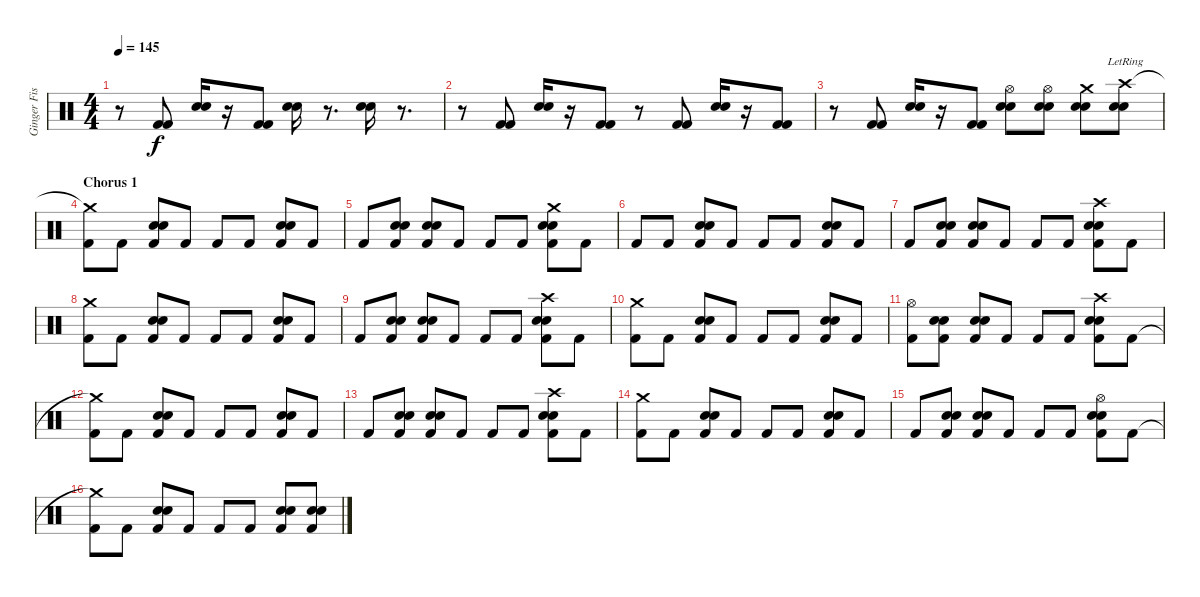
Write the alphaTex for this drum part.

\track ("Ginger Fish [Drums]" "Ginger Fis") {instrument percussion}
\staff {score}
\articulation defaults
\ts (4 4)
\tempo 145
\clef neutral
\ks c
r.8{dy f} ("Kick (hit) 2" "Kick (hit) 2").8 ("Snare (hit) 2" "Snare (hit) 2").16 r.16 ("Kick (hit) 2" "Kick (hit) 2").8 ("Snare (hit) 2" "Snare (hit) 2").16 r.8{d} ("Snare (hit) 2" "Snare (hit) 2").16 r.8{d} |
r.8 ("Kick (hit) 2" "Kick (hit) 2").8 ("Snare (hit) 2" "Snare (hit) 2").16 r.16 ("Kick (hit) 2" "Kick (hit) 2").8 r.8 ("Kick (hit) 2" "Kick (hit) 2").8 ("Snare (hit) 2" "Snare (hit) 2").16 r.16 ("Kick (hit) 2" "Kick (hit) 2").8 |
r.8 ("Kick (hit) 2" "Kick (hit) 2").8 ("Snare (hit) 2" "Snare (hit) 2").16 r.16 ("Kick (hit) 2" "Kick (hit) 2").8 ("Hi-Hat (open)" "Snare (hit) 2" "Snare (hit) 2").8 ("Hi-Hat (open)" "Snare (hit) 2" "Snare (hit) 2").8 ("Crash medium (hit)" "Snare (hit) 2" "Snare (hit) 2").8 ("Crash high (hit)"{lr} "Snare (hit) 2" "Snare (hit) 2").8 |
\section ("" "Chorus 1")
("Crash medium (hit)"{t} "Kick (hit) 2").8 "Kick (hit) 2".8 ("Snare (hit) 2" "Snare (hit) 2" "Kick (hit) 2").8 "Kick (hit) 2".8 "Kick (hit) 2".8 "Kick (hit) 2".8 ("Snare (hit) 2" "Snare (hit) 2" "Kick (hit) 2").8 "Kick (hit) 2".8 |
"Kick (hit) 2".8 ("Snare (hit) 2" "Snare (hit) 2" "Kick (hit) 2").8 ("Snare (hit) 2" "Snare (hit) 2" "Kick (hit) 2").8 "Kick (hit) 2".8 "Kick (hit) 2".8 "Kick (hit) 2".8 ("Crash medium (hit)" "Snare (hit) 2" "Snare (hit) 2" "Kick (hit) 2").8 "Kick (hit) 2".8 |
"Kick (hit) 2".8 "Kick (hit) 2".8 ("Snare (hit) 2" "Snare (hit) 2" "Kick (hit) 2").8 "Kick (hit) 2".8 "Kick (hit) 2".8 "Kick (hit) 2".8 ("Snare (hit) 2" "Snare (hit) 2" "Kick (hit) 2").8 "Kick (hit) 2".8 |
"Kick (hit) 2".8 ("Snare (hit) 2" "Snare (hit) 2" "Kick (hit) 2").8 ("Snare (hit) 2" "Snare (hit) 2" "Kick (hit) 2").8 "Kick (hit) 2".8 "Kick (hit) 2".8 "Kick (hit) 2".8 ("Crash high (hit)" "Snare (hit) 2" "Snare (hit) 2" "Kick (hit) 2").8 "Kick (hit) 2".8 |
("Crash medium (hit)" "Kick (hit) 2").8 "Kick (hit) 2".8 ("Snare (hit) 2" "Snare (hit) 2" "Kick (hit) 2").8 "Kick (hit) 2".8 "Kick (hit) 2".8 "Kick (hit) 2".8 ("Snare (hit) 2" "Snare (hit) 2" "Kick (hit) 2").8 "Kick (hit) 2".8 |
"Kick (hit) 2".8 ("Snare (hit) 2" "Snare (hit) 2" "Kick (hit) 2").8 ("Snare (hit) 2" "Snare (hit) 2" "Kick (hit) 2").8 "Kick (hit) 2".8 "Kick (hit) 2".8 "Kick (hit) 2".8 ("Crash high (hit)" "Snare (hit) 2" "Snare (hit) 2" "Kick (hit) 2").8 "Kick (hit) 2".8 |
("Crash medium (hit)" "Kick (hit) 2").8 "Kick (hit) 2".8 ("Snare (hit) 2" "Snare (hit) 2" "Kick (hit) 2").8 "Kick (hit) 2".8 "Kick (hit) 2".8 "Kick (hit) 2".8 ("Snare (hit) 2" "Snare (hit) 2" "Kick (hit) 2").8 "Kick (hit) 2".8 |
("Hi-Hat (open)" "Kick (hit) 2").8 ("Snare (hit) 2" "Snare (hit) 2" "Kick (hit) 2").8 ("Snare (hit) 2" "Snare (hit) 2" "Kick (hit) 2").8 "Kick (hit) 2".8 "Kick (hit) 2".8 "Kick (hit) 2".8 ("Crash high (hit)" "Snare (hit) 2" "Snare (hit) 2" "Kick (hit) 2").8 "Kick (hit) 2".8 |
("Crash medium (hit)"{t} "Kick (hit) 2").8 "Kick (hit) 2".8 ("Snare (hit) 2" "Snare (hit) 2" "Kick (hit) 2").8 "Kick (hit) 2".8 "Kick (hit) 2".8 "Kick (hit) 2".8 ("Snare (hit) 2" "Snare (hit) 2" "Kick (hit) 2").8 "Kick (hit) 2".8 |
"Kick (hit) 2".8 ("Snare (hit) 2" "Snare (hit) 2" "Kick (hit) 2").8 ("Snare (hit) 2" "Snare (hit) 2" "Kick (hit) 2").8 "Kick (hit) 2".8 "Kick (hit) 2".8 "Kick (hit) 2".8 ("Crash high (hit)" "Snare (hit) 2" "Snare (hit) 2" "Kick (hit) 2").8 "Kick (hit) 2".8 |
("Crash medium (hit)" "Kick (hit) 2").8 "Kick (hit) 2".8 ("Snare (hit) 2" "Snare (hit) 2" "Kick (hit) 2").8 "Kick (hit) 2".8 "Kick (hit) 2".8 "Kick (hit) 2".8 ("Snare (hit) 2" "Snare (hit) 2" "Kick (hit) 2").8 "Kick (hit) 2".8 |
"Kick (hit) 2".8 ("Snare (hit) 2" "Snare (hit) 2" "Kick (hit) 2").8 ("Snare (hit) 2" "Snare (hit) 2" "Kick (hit) 2").8 "Kick (hit) 2".8 "Kick (hit) 2".8 "Kick (hit) 2".8 ("Hi-Hat (open)" "Snare (hit) 2" "Snare (hit) 2" "Kick (hit) 2").8 "Kick (hit) 2".8 |
("Crash medium (hit)"{t} "Kick (hit) 2").8 "Kick (hit) 2".8 ("Snare (hit) 2" "Snare (hit) 2" "Kick (hit) 2").8 "Kick (hit) 2".8 "Kick (hit) 2".8 "Kick (hit) 2".8 ("Snare (hit) 2" "Snare (hit) 2" "Kick (hit) 2").8 ("Snare (hit) 2" "Snare (hit) 2" "Kick (hit) 2").8
